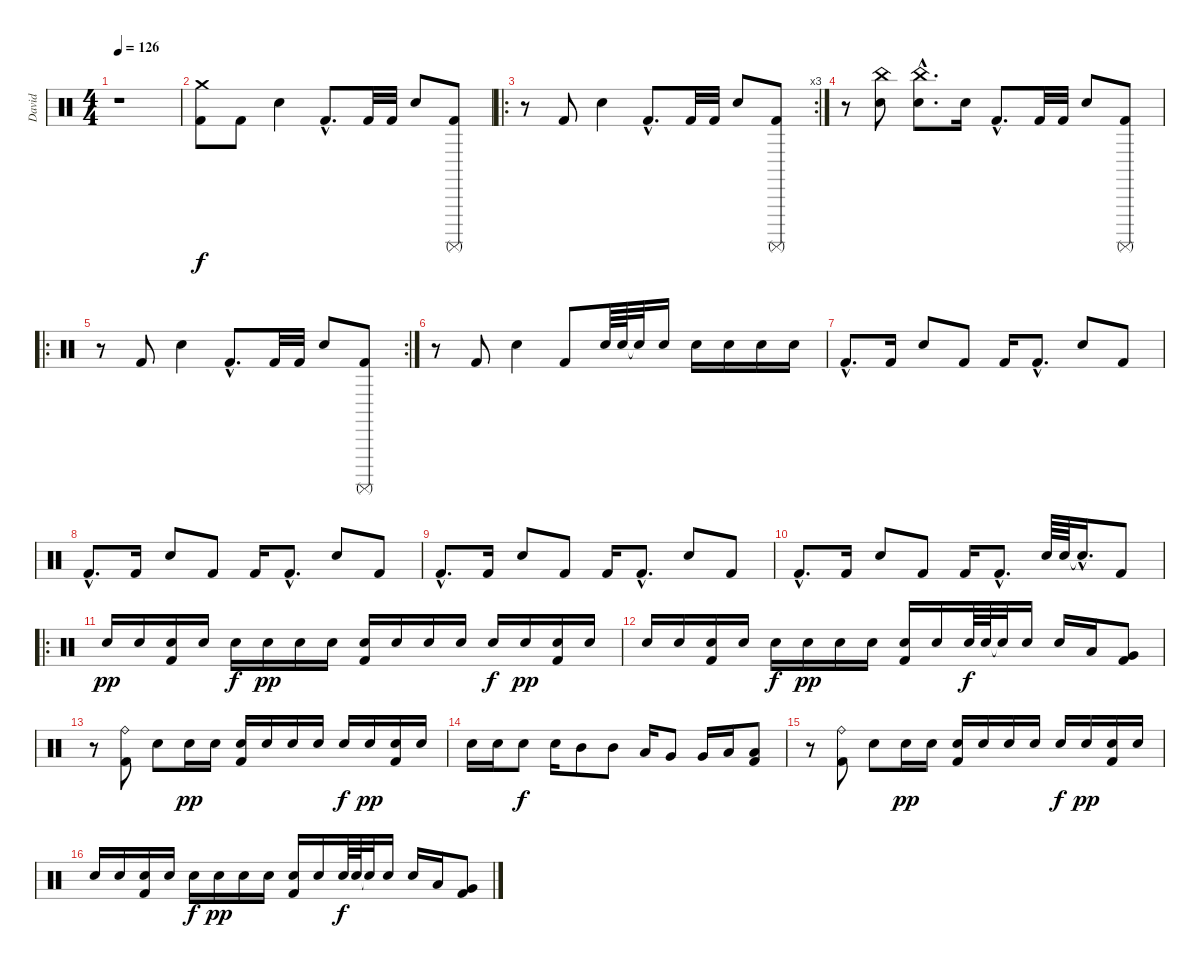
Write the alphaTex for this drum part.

\track ("David" "David") {instrument percussion}
\staff {score}
\articulation defaults
\ts (4 4)
\tempo 126
\clef neutral
\ks c
r.1{dy f} |
("Crash medium (hit)" "Kick (hit) 2").8 "Kick (hit) 2".8 "Snare (hit) 2".4 "Kick (hit) 2"{hac}.8{d} "Kick (hit) 2".32 "Kick (hit) 2".32 "Snare (hit) 2".8 ("Surdo (mute)" "Kick (hit) 2").8 |
\ro
\rc 3
r.8 "Kick (hit) 2".8 "Snare (hit) 2".4 "Kick (hit) 2"{hac}.8{d} "Kick (hit) 2".32 "Kick (hit) 2".32 "Snare (hit) 2".8 ("Surdo (mute)" "Kick (hit) 2").8 |
r.8 ("China (hit)" "Snare (hit) 2").8 ("China (hit)"{hac} "Snare (hit) 2"{hac}).8{d} "Snare (hit) 2".16 "Kick (hit) 2"{hac}.8{d} "Kick (hit) 2".32 "Kick (hit) 2".32 "Snare (hit) 2".8 ("Surdo (mute)" "Kick (hit) 2").8 |
\ro
\rc 2
r.8 "Kick (hit) 2".8 "Snare (hit) 2".4 "Kick (hit) 2"{hac}.8{d} "Kick (hit) 2".32 "Kick (hit) 2".32 "Snare (hit) 2".8 ("Surdo (mute)" "Kick (hit) 2").8 |
r.8 "Kick (hit) 2".8 "Snare (hit) 2".4 "Kick (hit) 2".8 "Snare (hit) 2".64 "Snare (hit) 2".64 "Snare (hit)"{t}.32 "Snare (hit) 2".16 "Snare (hit) 2".16 "Snare (hit) 2".16 "Snare (hit) 2".16 "Snare (hit) 2".16 |
"Kick (hit) 2"{hac}.8{d} "Kick (hit) 2".16 "Snare (hit) 2".8 "Kick (hit) 2".8 "Kick (hit) 2".16 "Kick (hit) 2"{hac}.8{d} "Snare (hit) 2".8 "Kick (hit) 2".8 |
"Kick (hit) 2"{hac}.8{d} "Kick (hit) 2".16 "Snare (hit) 2".8 "Kick (hit) 2".8 "Kick (hit) 2".16 "Kick (hit) 2"{hac}.8{d} "Snare (hit) 2".8 "Kick (hit) 2".8 |
"Kick (hit) 2"{hac}.8{d} "Kick (hit) 2".16 "Snare (hit) 2".8 "Kick (hit) 2".8 "Kick (hit) 2".16 "Kick (hit) 2"{hac}.8{d} "Snare (hit) 2".8 "Kick (hit) 2".8 |
"Kick (hit) 2"{hac}.8{d} "Kick (hit) 2".16 "Snare (hit) 2".8 "Kick (hit) 2".8 "Kick (hit) 2".16 "Kick (hit) 2"{hac}.8{d} "Snare (hit) 2".64 "Snare (hit) 2".64 "Snare (hit)"{hac t}.16{d} "Kick (hit) 2".8 |
\ro "Snare (hit) 2".16{dy pp} "Snare (hit) 2".16
("Snare (hit) 2" "Kick (hit) 2").16 "Snare (hit) 2".16 "Snare (hit) 2".16{dy f} "Snare (hit) 2".16{dy pp} "Snare (hit) 2".16 "Snare (hit) 2".16 ("Snare (hit) 2" "Kick (hit) 2").16 "Snare (hit) 2".16 "Snare (hit) 2".16 "Snare (hit) 2".16 "Snare (hit) 2".16{dy f} "Snare (hit) 2".16{dy pp} ("Snare (hit) 2" "Kick (hit) 2").16 "Snare (hit) 2".16 |
"Snare (hit) 2".16 "Snare (hit) 2".16 ("Snare (hit) 2" "Kick (hit) 2").16 "Snare (hit) 2".16 "Snare (hit) 2".16{dy f} "Snare (hit) 2".16{dy pp} "Snare (hit) 2".16 "Snare (hit) 2".16 ("Snare (hit) 2" "Kick (hit) 2").16 "Snare (hit) 2".16 "Snare (hit) 2".64{dy f} "Snare (hit) 2".64 "Snare (hit) 2"{t}.32 "Snare (hit) 2".16 "Snare (hit) 2".16 "Low Tom (hit)".16 ("Very Low Tom (hit)" "Kick (hit) 2").8 |
r.8 ("Ride (bell)" "Kick (hit) 2").8 "Snare (hit) 2".8 "Snare (hit) 2".16{dy pp} "Snare (hit) 2".16 ("Snare (hit) 2" "Kick (hit) 2").16 "Snare (hit) 2".16 "Snare (hit) 2".16 "Snare (hit) 2".16 "Snare (hit) 2".16{dy f} "Snare (hit) 2".16{dy pp} ("Snare (hit) 2" "Kick (hit) 2").16 "Snare (hit) 2".16 |
"Snare (hit) 2".16 "Snare (hit) 2".16 "Snare (hit) 2".8{dy f} "Snare (hit) 2".16 "Mid Tom (hit)".8 "Mid Tom (hit)".8 "Low Tom (hit)".16 "Very Low Tom (hit)".8 "Very Low Tom (hit)".16 "Low Floor Tom (hit)".16 ("Low Floor Tom (hit)" "Kick (hit) 2").8 |
r.8 ("Ride (bell)" "Kick (hit) 2").8 "Snare (hit) 2".8 "Snare (hit) 2".16{dy pp} "Snare (hit) 2".16 ("Snare (hit) 2" "Kick (hit) 2").16 "Snare (hit) 2".16 "Snare (hit) 2".16 "Snare (hit) 2".16 "Snare (hit) 2".16{dy f} "Snare (hit) 2".16{dy pp} ("Snare (hit) 2" "Kick (hit) 2").16 "Snare (hit) 2".16 |
"Snare (hit) 2".16 "Snare (hit) 2".16 ("Snare (hit) 2" "Kick (hit) 2").16 "Snare (hit) 2".16 "Snare (hit) 2".16{dy f} "Snare (hit) 2".16{dy pp} "Snare (hit) 2".16 "Snare (hit) 2".16 ("Snare (hit) 2" "Kick (hit) 2").16 "Snare (hit) 2".16 "Snare (hit) 2".64{dy f} "Snare (hit) 2".64 "Snare (hit)"{t}.32 "Snare (hit) 2".16 "Snare (hit) 2".16 "Low Tom (hit)".16 ("Very Low Tom (hit)" "Kick (hit) 2").8
